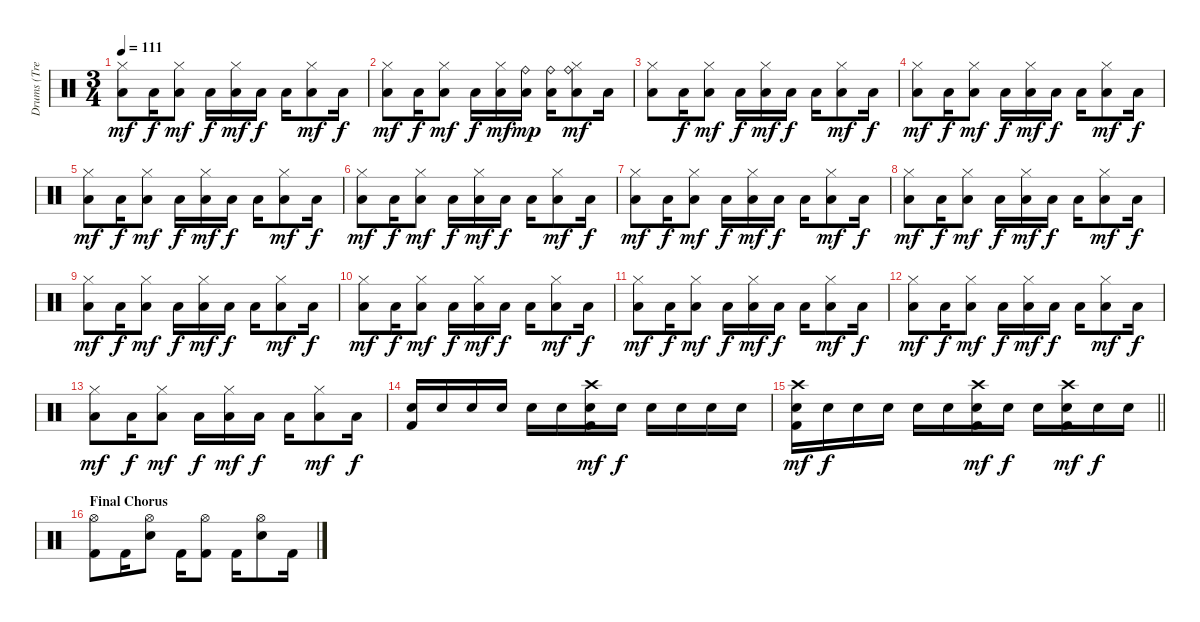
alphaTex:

\track ("Drums (Tre Cool)" "Drums (Tre") {instrument percussion}
\staff {score}
\articulation defaults
\ts (3 4)
\tempo 111
\clef neutral
\ks c
("Hi-Hat (closed)" "Low Floor Tom (hit)").8{dy mf} "Low Floor Tom (hit)".16{dy f} ("Hi-Hat (closed)" "Low Tom (hit)").8{dy mf} "Low Tom (hit)".16{dy f} ("Hi-Hat (closed)" "Low Floor Tom (hit)").16{dy mf} "Low Floor Tom (hit)".16{dy f} "Low Floor Tom (hit)".16 ("Hi-Hat (closed)" "Low Tom (hit)").8{dy mf} "Low Tom (hit)".16{dy f} |
("Hi-Hat (closed)" "Low Floor Tom (hit)").8{dy mf} "Low Floor Tom (hit)".16{dy f} ("Hi-Hat (closed)" "Low Tom (hit)").8{dy mf} "Low Tom (hit)".16{dy f} ("Hi-Hat (closed)" "Low Floor Tom (hit)").16{dy mf} ("Ride (bell)" "Low Floor Tom (hit)").16{dy mp} ("Ride (bell)" "Low Floor Tom (hit)").16 ("Ride (bell)" "Hi-Hat (closed)" "Low Tom (hit)").8{dy mf} "Low Tom (hit)".16 |
("Hi-Hat (closed)" "Low Floor Tom (hit)").8 "Low Floor Tom (hit)".16{dy f} ("Hi-Hat (closed)" "Low Tom (hit)").8{dy mf} "Low Tom (hit)".16{dy f} ("Hi-Hat (closed)" "Low Floor Tom (hit)").16{dy mf} "Low Floor Tom (hit)".16{dy f} "Low Floor Tom (hit)".16 ("Hi-Hat (closed)" "Low Tom (hit)").8{dy mf} "Low Tom (hit)".16{dy f} |
("Hi-Hat (closed)" "Low Floor Tom (hit)").8{dy mf} "Low Floor Tom (hit)".16{dy f} ("Hi-Hat (closed)" "Low Tom (hit)").8{dy mf} "Low Tom (hit)".16{dy f} ("Hi-Hat (closed)" "Low Floor Tom (hit)").16{dy mf} "Low Floor Tom (hit)".16{dy f} "Low Floor Tom (hit)".16 ("Hi-Hat (closed)" "Low Tom (hit)").8{dy mf} "Low Tom (hit)".16{dy f} |
("Hi-Hat (closed)" "Low Floor Tom (hit)").8{dy mf} "Low Floor Tom (hit)".16{dy f} ("Hi-Hat (closed)" "Low Tom (hit)").8{dy mf} "Low Tom (hit)".16{dy f} ("Hi-Hat (closed)" "Low Floor Tom (hit)").16{dy mf} "Low Floor Tom (hit)".16{dy f} "Low Floor Tom (hit)".16 ("Hi-Hat (closed)" "Low Tom (hit)").8{dy mf} "Low Tom (hit)".16{dy f} |
("Hi-Hat (closed)" "Low Floor Tom (hit)").8{dy mf} "Low Floor Tom (hit)".16{dy f} ("Hi-Hat (closed)" "Low Tom (hit)").8{dy mf} "Low Tom (hit)".16{dy f} ("Hi-Hat (closed)" "Low Floor Tom (hit)").16{dy mf} "Low Floor Tom (hit)".16{dy f} "Low Floor Tom (hit)".16 ("Hi-Hat (closed)" "Low Tom (hit)").8{dy mf} "Low Tom (hit)".16{dy f} |
("Hi-Hat (closed)" "Low Floor Tom (hit)").8{dy mf} "Low Floor Tom (hit)".16{dy f} ("Hi-Hat (closed)" "Low Tom (hit)").8{dy mf} "Low Tom (hit)".16{dy f} ("Hi-Hat (closed)" "Low Floor Tom (hit)").16{dy mf} "Low Floor Tom (hit)".16{dy f} "Low Floor Tom (hit)".16 ("Hi-Hat (closed)" "Low Tom (hit)").8{dy mf} "Low Tom (hit)".16{dy f} |
("Hi-Hat (closed)" "Low Floor Tom (hit)").8{dy mf} "Low Floor Tom (hit)".16{dy f} ("Hi-Hat (closed)" "Low Tom (hit)").8{dy mf} "Low Tom (hit)".16{dy f} ("Hi-Hat (closed)" "Low Floor Tom (hit)").16{dy mf} "Low Floor Tom (hit)".16{dy f} "Low Floor Tom (hit)".16 ("Hi-Hat (closed)" "Low Tom (hit)").8{dy mf} "Low Tom (hit)".16{dy f} |
("Hi-Hat (closed)" "Low Floor Tom (hit)").8{dy mf} "Low Floor Tom (hit)".16{dy f} ("Hi-Hat (closed)" "Low Tom (hit)").8{dy mf} "Low Tom (hit)".16{dy f} ("Hi-Hat (closed)" "Low Floor Tom (hit)").16{dy mf} "Low Floor Tom (hit)".16{dy f} "Low Floor Tom (hit)".16 ("Hi-Hat (closed)" "Low Tom (hit)").8{dy mf} "Low Tom (hit)".16{dy f} |
("Hi-Hat (closed)" "Low Floor Tom (hit)").8{dy mf} "Low Floor Tom (hit)".16{dy f} ("Hi-Hat (closed)" "Low Tom (hit)").8{dy mf} "Low Tom (hit)".16{dy f} ("Hi-Hat (closed)" "Low Floor Tom (hit)").16{dy mf} "Low Floor Tom (hit)".16{dy f} "Low Floor Tom (hit)".16 ("Hi-Hat (closed)" "Low Tom (hit)").8{dy mf} "Low Tom (hit)".16{dy f} |
("Hi-Hat (closed)" "Low Floor Tom (hit)").8{dy mf} "Low Floor Tom (hit)".16{dy f} ("Hi-Hat (closed)" "Low Tom (hit)").8{dy mf} "Low Tom (hit)".16{dy f} ("Hi-Hat (closed)" "Low Floor Tom (hit)").16{dy mf} "Low Floor Tom (hit)".16{dy f} "Low Floor Tom (hit)".16 ("Hi-Hat (closed)" "Low Tom (hit)").8{dy mf} "Low Tom (hit)".16{dy f} |
("Hi-Hat (closed)" "Low Floor Tom (hit)").8{dy mf} "Low Floor Tom (hit)".16{dy f} ("Hi-Hat (closed)" "Low Tom (hit)").8{dy mf} "Low Tom (hit)".16{dy f} ("Hi-Hat (closed)" "Low Floor Tom (hit)").16{dy mf} "Low Floor Tom (hit)".16{dy f} "Low Floor Tom (hit)".16 ("Hi-Hat (closed)" "Low Tom (hit)").8{dy mf} "Low Tom (hit)".16{dy f} |
("Hi-Hat (closed)" "Low Floor Tom (hit)").8{dy mf} "Low Floor Tom (hit)".16{dy f} ("Hi-Hat (closed)" "Low Tom (hit)").8{dy mf} "Low Tom (hit)".16{dy f} ("Hi-Hat (closed)" "Low Floor Tom (hit)").16{dy mf} "Low Floor Tom (hit)".16{dy f} "Low Floor Tom (hit)".16 ("Hi-Hat (closed)" "Low Tom (hit)").8{dy mf} "Low Tom (hit)".16{dy f} |
("Electric Snare (hit)" "Kick (hit) 2").16 "Electric Snare (hit)".16 "Electric Snare (hit)".16 "Electric Snare (hit)".16 "Electric Snare (hit)".16 "Electric Snare (hit)".16 ("Crash high (hit)" "Electric Snare (hit)" "Kick (hit) 2").16{dy mf} "Electric Snare (hit)".16{dy f} "Electric Snare (hit)".16 "Electric Snare (hit)".16 "Electric Snare (hit)".16 "Electric Snare (hit)".16 |
\barLineRight lightlight
("Crash high (hit)" "Electric Snare (hit)" "Kick (hit) 2").16{dy mf} "Electric Snare (hit)".16{dy f} "Electric Snare (hit)".16 "Electric Snare (hit)".16 "Electric Snare (hit)".16 "Electric Snare (hit)".16 ("Crash high (hit)" "Electric Snare (hit)" "Kick (hit) 2").16{dy mf} "Electric Snare (hit)".16{dy f} "Electric Snare (hit)".16 ("Crash high (hit)" "Electric Snare (hit)" "Kick (hit) 2").16{dy mf} "Electric Snare (hit)".16{dy f} "Electric Snare (hit)".16 |
\section ("" "Final Chorus")
("Hi-Hat (open)" "Kick (hit) 2").8 "Kick (hit) 2".16 ("Hi-Hat (open)" "Electric Snare (hit)").8 "Kick (hit) 2".16 ("Hi-Hat (open)" "Kick (hit) 2").8 "Kick (hit) 2".16 ("Hi-Hat (open)" "Electric Snare (hit)").8 "Kick (hit) 2".16
